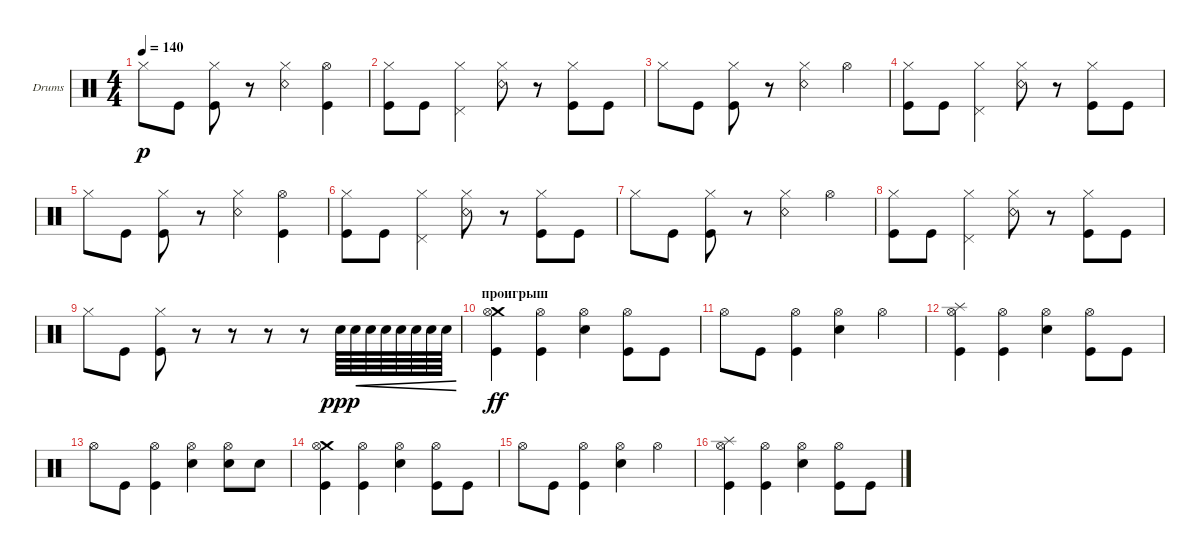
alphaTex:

\defaultSystemsLayout 4
\bracketExtendMode groupsimilarinstruments
\firstSystemTrackNameOrientation horizontal
\otherSystemsTrackNameOrientation horizontal
\track ("Drumkit" "Drums") {instrument percussion}
\staff {score}
\articulation defaults
\ts (4 4)
\tempo 140
\clef neutral
\scale
0.333333
\ks c "Hi-Hat (closed)".8{dy p} "Kick (hit)".8
("Kick (hit)" "Hi-Hat (closed)").8 r.8 ("Snare (rim shot)" "Hi-Hat (closed)").4 ("Hi-Hat (open)" "Kick (hit)").4 |
\scale
0.333333 ("Kick (hit)" "Hi-Hat (closed)").8 "Kick (hit)".8 ("Pedal Hi-Hat (hit)" "Hi-Hat (closed)").4 ("Snare (rim shot)" "Hi-Hat (closed)").8 r.8 ("Kick (hit)" "Hi-Hat (closed)").8 "Kick (hit)".8 |
\scale
0.333333 "Hi-Hat (closed)".8 "Kick (hit)".8 ("Kick (hit)" "Hi-Hat (closed)").8 r.8 ("Snare (rim shot)" "Hi-Hat (closed)").4 "Hi-Hat (open)".4 |
\scale
0.333333 ("Kick (hit)" "Hi-Hat (closed)").8 "Kick (hit)".8 ("Pedal Hi-Hat (hit)" "Hi-Hat (closed)").4 ("Snare (rim shot)" "Hi-Hat (closed)").8 r.8 ("Kick (hit)" "Hi-Hat (closed)").8 "Kick (hit)".8 |
\scale
0.333333 "Hi-Hat (closed)".8 "Kick (hit)".8 ("Kick (hit)" "Hi-Hat (closed)").8 r.8 ("Snare (rim shot)" "Hi-Hat (closed)").4 ("Hi-Hat (open)" "Kick (hit)").4 |
\scale
0.333333 ("Kick (hit)" "Hi-Hat (closed)").8 "Kick (hit)".8 ("Pedal Hi-Hat (hit)" "Hi-Hat (closed)").4 ("Snare (rim shot)" "Hi-Hat (closed)").8 r.8 ("Kick (hit)" "Hi-Hat (closed)").8 "Kick (hit)".8 |
\scale
0.333333 "Hi-Hat (closed)".8 "Kick (hit)".8 ("Kick (hit)" "Hi-Hat (closed)").8 r.8 ("Snare (rim shot)" "Hi-Hat (closed)").4 "Hi-Hat (open)".4 |
\scale
0.333333 ("Kick (hit)" "Hi-Hat (closed)").8 "Kick (hit)".8 ("Pedal Hi-Hat (hit)" "Hi-Hat (closed)").4 ("Snare (rim shot)" "Hi-Hat (closed)").8 r.8 ("Kick (hit)" "Hi-Hat (closed)").8 "Kick (hit)".8 |
\scale
0.333333 "Hi-Hat (closed)".8 "Kick (hit)".8 ("Kick (hit)" "Hi-Hat (closed)").8 r.8 r.8 r.8 r.8 "Snare (hit) 2".64{dy ppp} "Snare (hit) 2".64{cre} "Snare (hit) 2".64{cre} "Snare (hit) 2".64{cre} "Snare (hit) 2".64{cre} "Snare (hit) 2".64{cre} "Snare (hit) 2".64{cre} "Snare (hit) 2".64{cre} |
\section ("" "проигрыш")
\scale
0.333333 ("Kick (hit)" "Crash medium (hit)" "Hi-Hat (open)").4{dy ff} ("Hi-Hat (open)" "Kick (hit)").4 ("Hi-Hat (open)" "Snare (hit) 2").4 ("Kick (hit)" "Hi-Hat (open)").8 "Kick (hit)".8 |
\scale
0.333333 "Hi-Hat (open)".8 "Kick (hit)".8 ("Kick (hit)" "Hi-Hat (open)").4 ("Snare (hit) 2" "Hi-Hat (open)").4 "Hi-Hat (open)".4 |
\scale
0.333333 ("Kick (hit)" "Hi-Hat (open)" "Splash (hit)").4 ("Hi-Hat (open)" "Kick (hit)").4 ("Hi-Hat (open)" "Snare (hit) 2").4 ("Kick (hit)" "Hi-Hat (open)").8 "Kick (hit)".8 |
\scale
0.333333 "Hi-Hat (open)".8 "Kick (hit)".8 ("Kick (hit)" "Hi-Hat (open)").4 ("Snare (hit) 2" "Hi-Hat (open)").4 ("Hi-Hat (open)" "Snare (hit) 2").8 "Snare (hit) 2".8 |
\scale
0.333333 ("Kick (hit)" "Crash medium (hit)" "Hi-Hat (open)").4 ("Hi-Hat (open)" "Kick (hit)").4 ("Hi-Hat (open)" "Snare (hit) 2").4 ("Kick (hit)" "Hi-Hat (open)").8 "Kick (hit)".8 |
\scale
0.333333 "Hi-Hat (open)".8 "Kick (hit)".8 ("Kick (hit)" "Hi-Hat (open)").4 ("Snare (hit) 2" "Hi-Hat (open)").4 "Hi-Hat (open)".4 |
\scale
0.333333 ("Kick (hit)" "Hi-Hat (open)" "Splash (hit)").4 ("Hi-Hat (open)" "Kick (hit)").4 ("Hi-Hat (open)" "Snare (hit) 2").4 ("Kick (hit)" "Hi-Hat (open)").8 "Kick (hit)".8
